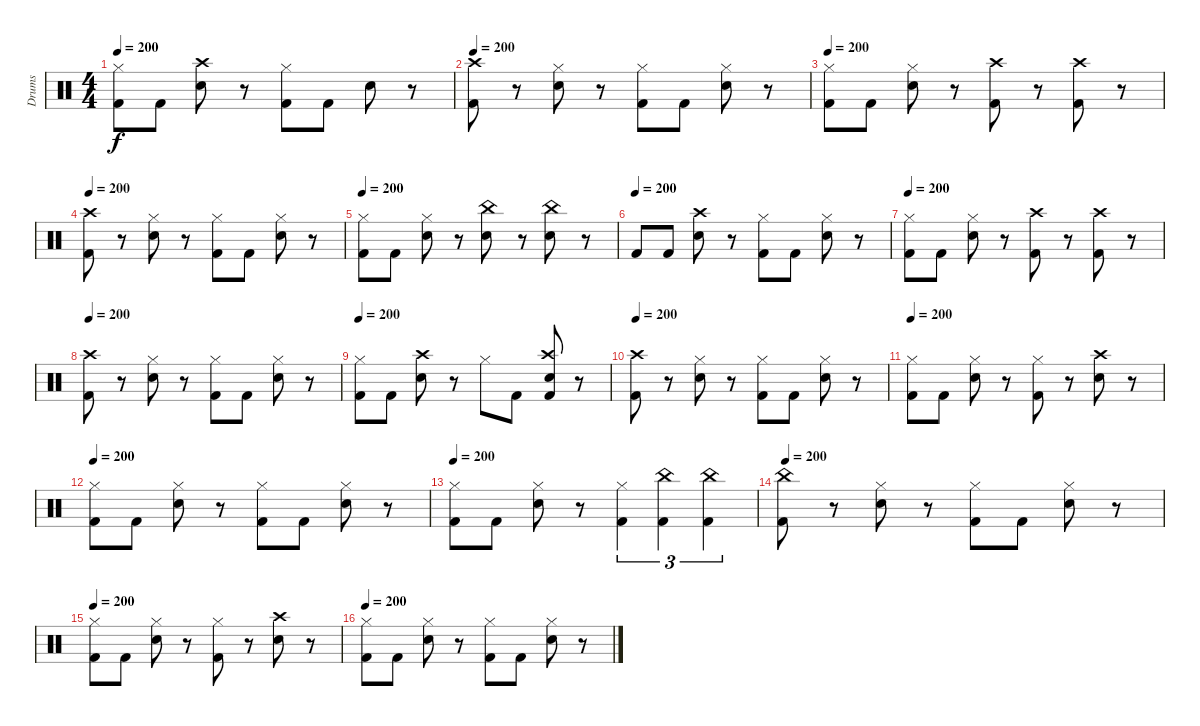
\track ("Drums" "Drums") {instrument percussion}
\staff {score}
\articulation defaults
\ts (4 4)
\tempo 200
\clef neutral
\ks c
("Kick (hit) 2" "Hi-Hat (closed)").8{dy f} "Kick (hit) 2".8 ("Crash high (hit)" "Snare (hit) 2").8 r.8 ("Kick (hit) 2" "Hi-Hat (closed)").8 "Kick (hit) 2".8 "Snare (hit) 2".8 r.8 |
\tempo 200
("Kick (hit) 2" "Crash high (hit)").8 r.8 ("Hi-Hat (closed)" "Snare (hit) 2").8 r.8 ("Hi-Hat (closed)" "Kick (hit) 2").8 "Kick (hit) 2".8 ("Hi-Hat (closed)" "Snare (hit) 2").8 r.8 |
\tempo 200
("Kick (hit) 2" "Hi-Hat (closed)").8 "Kick (hit) 2".8 ("Snare (hit) 2" "Hi-Hat (closed)").8 r.8 ("Crash high (hit)" "Kick (hit) 2").8 r.8 ("Crash high (hit)" "Kick (hit) 2").8 r.8 |
\tempo 200
("Kick (hit) 2" "Crash high (hit)").8 r.8 ("Hi-Hat (closed)" "Snare (hit) 2").8 r.8 ("Hi-Hat (closed)" "Kick (hit) 2").8 "Kick (hit) 2".8 ("Hi-Hat (closed)" "Snare (hit) 2").8 r.8 |
\tempo 200
("Kick (hit) 2" "Hi-Hat (closed)").8 "Kick (hit) 2".8 ("Snare (hit) 2" "Hi-Hat (closed)").8 r.8 ("China (hit)" "Snare (hit) 2").8 r.8 ("China (hit)" "Snare (hit) 2").8 r.8 |
\tempo (200)
"Kick (hit) 2".8 "Kick (hit) 2".8 ("Crash high (hit)" "Snare (hit) 2").8 r.8 ("Hi-Hat (closed)" "Kick (hit) 2").8 "Kick (hit) 2".8 ("Hi-Hat (closed)" "Snare (hit) 2").8 r.8 |
\tempo 200
("Kick (hit) 2" "Hi-Hat (closed)").8 "Kick (hit) 2".8 ("Snare (hit) 2" "Hi-Hat (closed)").8 r.8 ("Crash high (hit)" "Kick (hit) 2").8 r.8 ("Crash high (hit)" "Kick (hit) 2").8 r.8 |
\tempo 200
("Kick (hit) 2" "Crash high (hit)").8 r.8 ("Hi-Hat (closed)" "Snare (hit) 2").8 r.8 ("Hi-Hat (closed)" "Kick (hit) 2").8 "Kick (hit) 2".8 ("Hi-Hat (closed)" "Snare (hit) 2").8 r.8 |
\tempo 200
("Kick (hit) 2" "Hi-Hat (closed)").8 "Kick (hit) 2".8 ("Crash high (hit)" "Snare (hit) 2").8 r.8 "Hi-Hat (closed)".8 "Kick (hit) 2".8 ("Kick (hit) 2" "Snare (hit) 2" "Crash high (hit)").8 r.8 |
\tempo 200
("Kick (hit) 2" "Crash high (hit)").8 r.8 ("Hi-Hat (closed)" "Snare (hit) 2").8 r.8 ("Hi-Hat (closed)" "Kick (hit) 2").8 "Kick (hit) 2".8 ("Hi-Hat (closed)" "Snare (hit) 2").8 r.8 |
\tempo 200
("Kick (hit) 2" "Hi-Hat (closed)").8 "Kick (hit) 2".8 ("Snare (hit) 2" "Hi-Hat (closed)").8 r.8 ("Hi-Hat (closed)" "Kick (hit) 2").8 r.8 ("Crash high (hit)" "Snare (hit) 2").8 r.8 |
\tempo 200
("Hi-Hat (closed)" "Kick (hit) 2").8 "Kick (hit) 2".8 ("Snare (hit) 2" "Hi-Hat (closed)").8 r.8 ("Hi-Hat (closed)" "Kick (hit) 2").8 "Kick (hit) 2".8 ("Snare (hit) 2" "Hi-Hat (closed)").8 r.8 |
\tempo 200
("Kick (hit) 2" "Hi-Hat (closed)").8 "Kick (hit) 2".8 ("Snare (hit) 2" "Hi-Hat (closed)").8 r.8 ("Hi-Hat (closed)" "Kick (hit) 2").4{tu (3 2)} ("China (hit)" "Kick (hit) 2").4{tu (3 2)} ("China (hit)" "Kick (hit) 2").4{tu (3 2)} |
\tempo 200
("China (hit)" "Kick (hit) 2").8 r.8 ("Hi-Hat (closed)" "Snare (hit) 2").8 r.8 ("Hi-Hat (closed)" "Kick (hit) 2").8 "Kick (hit) 2".8 ("Snare (hit) 2" "Hi-Hat (closed)").8 r.8 |
\tempo 200
("Kick (hit) 2" "Hi-Hat (closed)").8 "Kick (hit) 2".8 ("Snare (hit) 2" "Hi-Hat (closed)").8 r.8 ("Hi-Hat (closed)" "Kick (hit) 2").8 r.8 ("Crash high (hit)" "Snare (hit) 2").8 r.8 |
\tempo 200
("Hi-Hat (closed)" "Kick (hit) 2").8 "Kick (hit) 2".8 ("Snare (hit) 2" "Hi-Hat (closed)").8 r.8 ("Hi-Hat (closed)" "Kick (hit) 2").8 "Kick (hit) 2".8 ("Snare (hit) 2" "Hi-Hat (closed)").8 r.8
